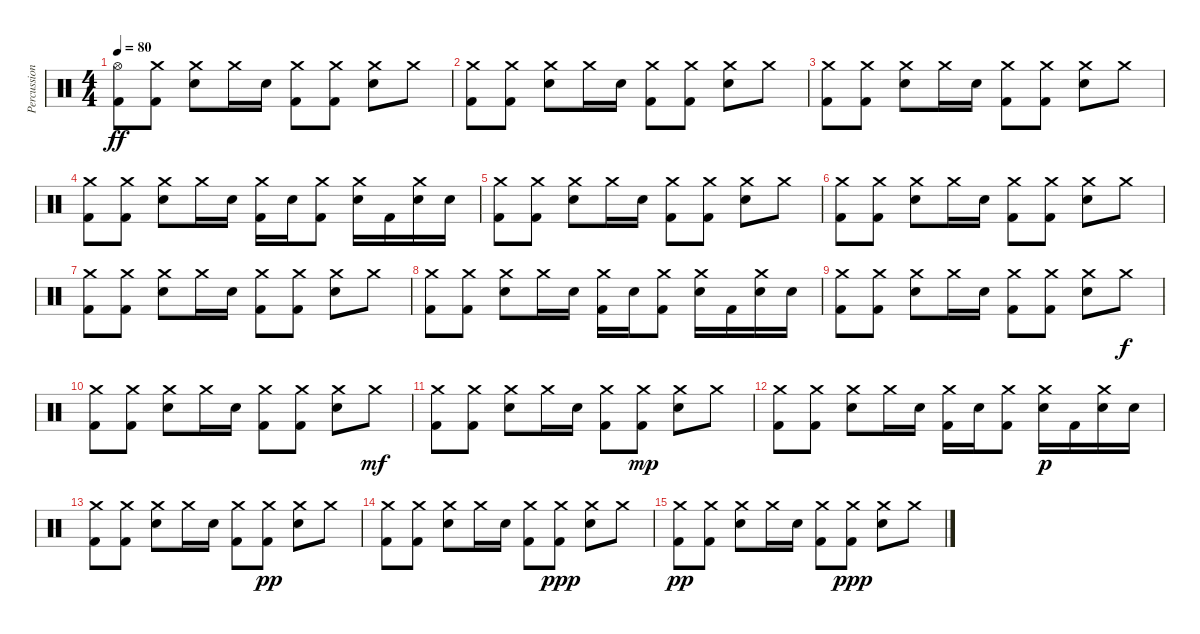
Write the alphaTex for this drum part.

\track ("Percussions" "Percussion") {instrument percussion}
\staff {score}
\articulation defaults
\ts (4 4)
\tempo 80
\clef neutral
\ks c
("Kick (hit) 2" "Hi-Hat (open)").8{dy ff} ("Kick (hit) 2" "Crash medium (hit)").8 ("Snare (hit) 2" "Crash medium (hit)").8 "Crash medium (hit)".16 "Snare (hit) 2".16 ("Kick (hit) 2" "Crash medium (hit)").8 ("Kick (hit) 2" "Crash medium (hit)").8 ("Snare (hit) 2" "Crash medium (hit)").8 "Crash medium (hit)".8 |
("Kick (hit) 2" "Crash medium (hit)").8 ("Kick (hit) 2" "Crash medium (hit)").8 ("Snare (hit) 2" "Crash medium (hit)").8 "Crash medium (hit)".16 "Snare (hit) 2".16 ("Kick (hit) 2" "Crash medium (hit)").8 ("Kick (hit) 2" "Crash medium (hit)").8 ("Snare (hit) 2" "Crash medium (hit)").8 "Crash medium (hit)".8 |
("Kick (hit) 2" "Crash medium (hit)").8 ("Kick (hit) 2" "Crash medium (hit)").8 ("Snare (hit) 2" "Crash medium (hit)").8 "Crash medium (hit)".16 "Snare (hit) 2".16 ("Kick (hit) 2" "Crash medium (hit)").8 ("Kick (hit) 2" "Crash medium (hit)").8 ("Snare (hit) 2" "Crash medium (hit)").8 "Crash medium (hit)".8 |
("Kick (hit) 2" "Crash medium (hit)").8 ("Kick (hit) 2" "Crash medium (hit)").8 ("Snare (hit) 2" "Crash medium (hit)").8 "Crash medium (hit)".16 "Snare (hit) 2".16 ("Kick (hit) 2" "Crash medium (hit)").16 "Snare (hit) 2".16 ("Kick (hit) 2" "Crash medium (hit)").8 ("Snare (hit) 2" "Crash medium (hit)").16 "Kick (hit) 2".16 ("Snare (hit) 2" "Crash medium (hit)").16 "Snare (hit) 2".16 |
("Kick (hit) 2" "Crash medium (hit)").8 ("Kick (hit) 2" "Crash medium (hit)").8 ("Snare (hit) 2" "Crash medium (hit)").8 "Crash medium (hit)".16 "Snare (hit) 2".16 ("Kick (hit) 2" "Crash medium (hit)").8 ("Kick (hit) 2" "Crash medium (hit)").8 ("Snare (hit) 2" "Crash medium (hit)").8 "Crash medium (hit)".8 |
("Kick (hit) 2" "Crash medium (hit)").8 ("Kick (hit) 2" "Crash medium (hit)").8 ("Snare (hit) 2" "Crash medium (hit)").8 "Crash medium (hit)".16 "Snare (hit) 2".16 ("Kick (hit) 2" "Crash medium (hit)").8 ("Kick (hit) 2" "Crash medium (hit)").8 ("Snare (hit) 2" "Crash medium (hit)").8 "Crash medium (hit)".8 |
("Kick (hit) 2" "Crash medium (hit)").8 ("Kick (hit) 2" "Crash medium (hit)").8 ("Snare (hit) 2" "Crash medium (hit)").8 "Crash medium (hit)".16 "Snare (hit) 2".16 ("Kick (hit) 2" "Crash medium (hit)").8 ("Kick (hit) 2" "Crash medium (hit)").8 ("Snare (hit) 2" "Crash medium (hit)").8 "Crash medium (hit)".8 |
("Kick (hit) 2" "Crash medium (hit)").8 ("Kick (hit) 2" "Crash medium (hit)").8 ("Snare (hit) 2" "Crash medium (hit)").8 "Crash medium (hit)".16 "Snare (hit) 2".16 ("Kick (hit) 2" "Crash medium (hit)").16 "Snare (hit) 2".16 ("Kick (hit) 2" "Crash medium (hit)").8 ("Snare (hit) 2" "Crash medium (hit)").16 "Kick (hit) 2".16 ("Snare (hit) 2" "Crash medium (hit)").16 "Snare (hit) 2".16 |
("Kick (hit) 2" "Crash medium (hit)").8 ("Kick (hit) 2" "Crash medium (hit)").8 ("Snare (hit) 2" "Crash medium (hit)").8 "Crash medium (hit)".16 "Snare (hit) 2".16 ("Kick (hit) 2" "Crash medium (hit)").8 ("Kick (hit) 2" "Crash medium (hit)").8 ("Snare (hit) 2" "Crash medium (hit)").8 "Crash medium (hit)".8{dy f} |
("Kick (hit) 2" "Crash medium (hit)").8 ("Kick (hit) 2" "Crash medium (hit)").8 ("Snare (hit) 2" "Crash medium (hit)").8 "Crash medium (hit)".16 "Snare (hit) 2".16 ("Kick (hit) 2" "Crash medium (hit)").8 ("Kick (hit) 2" "Crash medium (hit)").8 ("Snare (hit) 2" "Crash medium (hit)").8 "Crash medium (hit)".8{dy mf} |
("Kick (hit) 2" "Crash medium (hit)").8 ("Kick (hit) 2" "Crash medium (hit)").8 ("Snare (hit) 2" "Crash medium (hit)").8 "Crash medium (hit)".16 "Snare (hit) 2".16 ("Kick (hit) 2" "Crash medium (hit)").8 ("Kick (hit) 2" "Crash medium (hit)").8{dy mp} ("Snare (hit) 2" "Crash medium (hit)").8 "Crash medium (hit)".8 |
("Kick (hit) 2" "Crash medium (hit)").8 ("Kick (hit) 2" "Crash medium (hit)").8 ("Snare (hit) 2" "Crash medium (hit)").8 "Crash medium (hit)".16 "Snare (hit) 2".16 ("Kick (hit) 2" "Crash medium (hit)").16 "Snare (hit) 2".16 ("Kick (hit) 2" "Crash medium (hit)").8 ("Snare (hit) 2" "Crash medium (hit)").16{dy p} "Kick (hit) 2".16 ("Snare (hit) 2" "Crash medium (hit)").16 "Snare (hit) 2".16 |
("Kick (hit) 2" "Crash medium (hit)").8 ("Kick (hit) 2" "Crash medium (hit)").8 ("Snare (hit) 2" "Crash medium (hit)").8 "Crash medium (hit)".16 "Snare (hit) 2".16 ("Kick (hit) 2" "Crash medium (hit)").8 ("Kick (hit) 2" "Crash medium (hit)").8{dy pp} ("Snare (hit) 2" "Crash medium (hit)").8 "Crash medium (hit)".8 |
("Kick (hit) 2" "Crash medium (hit)").8 ("Kick (hit) 2" "Crash medium (hit)").8 ("Snare (hit) 2" "Crash medium (hit)").8 "Crash medium (hit)".16 "Snare (hit) 2".16 ("Kick (hit) 2" "Crash medium (hit)").8 ("Kick (hit) 2" "Crash medium (hit)").8{dy ppp} ("Snare (hit) 2" "Crash medium (hit)").8 "Crash medium (hit)".8 |
("Kick (hit) 2" "Crash medium (hit)").8{dy pp} ("Kick (hit) 2" "Crash medium (hit)").8 ("Snare (hit) 2" "Crash medium (hit)").8 "Crash medium (hit)".16 "Snare (hit) 2".16 ("Kick (hit) 2" "Crash medium (hit)").8 ("Kick (hit) 2" "Crash medium (hit)").8{dy ppp} ("Snare (hit) 2" "Crash medium (hit)").8 "Crash medium (hit)".8
